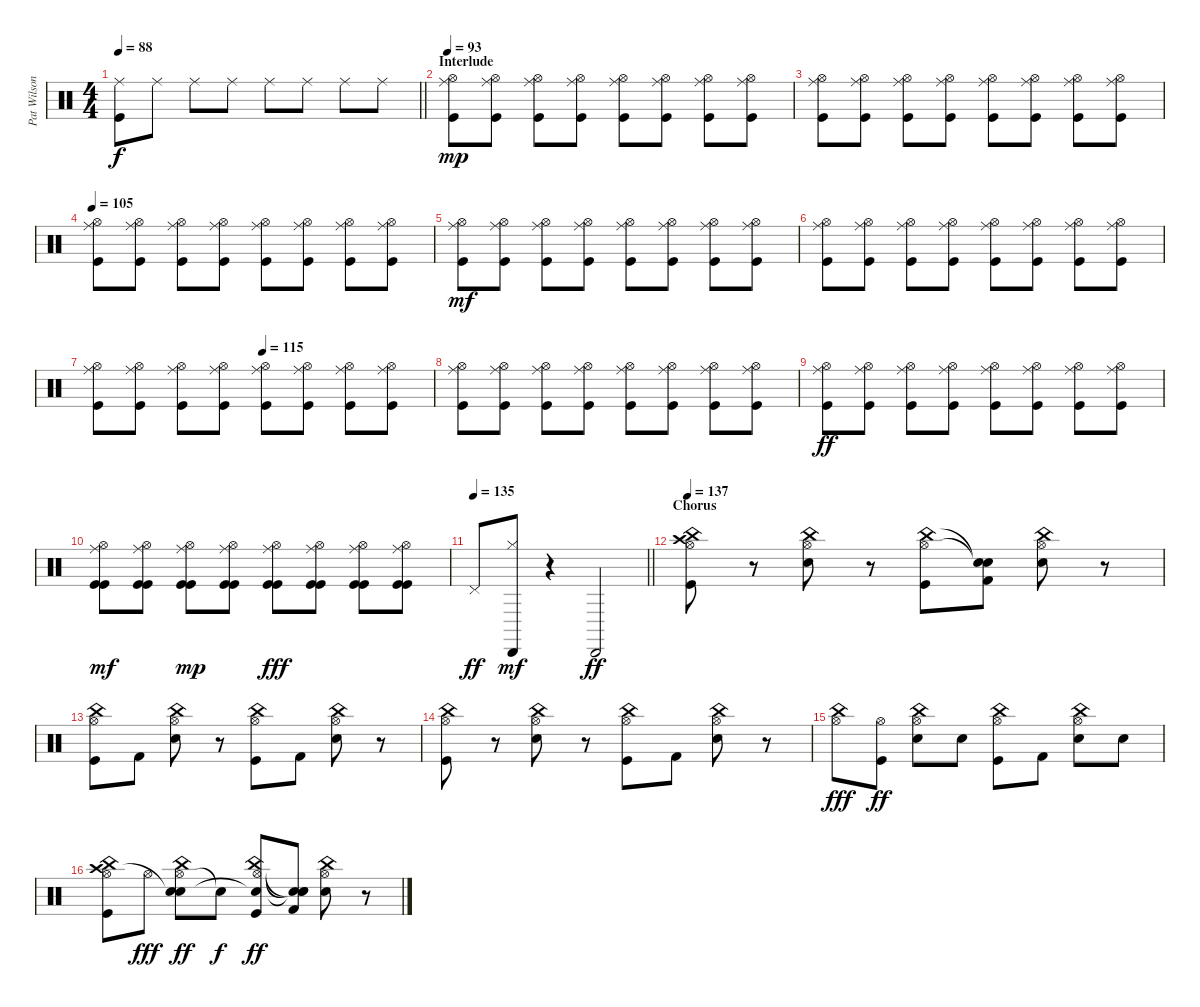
\track ("Pat Wilson" "Pat Wilson") {instrument percussion}
\staff {score}
\articulation defaults
\ts (4 4)
\tempo 88
\clef neutral
\barLineRight lightlight
\ks c
("Ride (middle)" "Kick (hit)").8{dy f} "Ride (middle)".8 "Ride (middle)".8 "Ride (middle)".8 "Ride (middle)".8 "Ride (middle)".8 "Ride (middle)".8 "Ride (middle)".8 |
\section ("" "Interlude")
\tempo 93
("Hi-Hat (open)" "Ride (middle)" "Kick (hit)").8{dy mp} ("Hi-Hat (open)" "Ride (middle)" "Kick (hit)").8 ("Hi-Hat (open)" "Ride (middle)" "Kick (hit)").8 ("Hi-Hat (open)" "Ride (middle)" "Kick (hit)").8 ("Hi-Hat (open)" "Ride (middle)" "Kick (hit)").8 ("Hi-Hat (open)" "Ride (middle)" "Kick (hit)").8 ("Hi-Hat (open)" "Ride (middle)" "Kick (hit)").8 ("Hi-Hat (open)" "Ride (middle)" "Kick (hit)").8 |
("Hi-Hat (open)" "Ride (middle)" "Kick (hit)").8 ("Hi-Hat (open)" "Ride (middle)" "Kick (hit)").8 ("Hi-Hat (open)" "Ride (middle)" "Kick (hit)").8 ("Hi-Hat (open)" "Ride (middle)" "Kick (hit)").8 ("Hi-Hat (open)" "Ride (middle)" "Kick (hit)").8 ("Hi-Hat (open)" "Ride (middle)" "Kick (hit)").8 ("Hi-Hat (open)" "Ride (middle)" "Kick (hit)").8 ("Hi-Hat (open)" "Ride (middle)" "Kick (hit)").8 |
\tempo 105
("Hi-Hat (open)" "Ride (middle)" "Kick (hit)").8 ("Hi-Hat (open)" "Ride (middle)" "Kick (hit)").8 ("Hi-Hat (open)" "Ride (middle)" "Kick (hit)").8 ("Hi-Hat (open)" "Ride (middle)" "Kick (hit)").8 ("Hi-Hat (open)" "Ride (middle)" "Kick (hit)").8 ("Hi-Hat (open)" "Ride (middle)" "Kick (hit)").8 ("Hi-Hat (open)" "Ride (middle)" "Kick (hit)").8 ("Hi-Hat (open)" "Ride (middle)" "Kick (hit)").8 |
("Hi-Hat (open)" "Ride (middle)" "Kick (hit)").8{dy mf} ("Hi-Hat (open)" "Ride (middle)" "Kick (hit)").8 ("Hi-Hat (open)" "Ride (middle)" "Kick (hit)").8 ("Hi-Hat (open)" "Ride (middle)" "Kick (hit)").8 ("Hi-Hat (open)" "Ride (middle)" "Kick (hit)").8 ("Hi-Hat (open)" "Ride (middle)" "Kick (hit)").8 ("Hi-Hat (open)" "Ride (middle)" "Kick (hit)").8 ("Hi-Hat (open)" "Ride (middle)" "Kick (hit)").8 |
("Hi-Hat (open)" "Ride (middle)" "Kick (hit)").8 ("Hi-Hat (open)" "Ride (middle)" "Kick (hit)").8 ("Hi-Hat (open)" "Ride (middle)" "Kick (hit)").8 ("Hi-Hat (open)" "Ride (middle)" "Kick (hit)").8 ("Hi-Hat (open)" "Ride (middle)" "Kick (hit)").8 ("Hi-Hat (open)" "Ride (middle)" "Kick (hit)").8 ("Hi-Hat (open)" "Ride (middle)" "Kick (hit)").8 ("Hi-Hat (open)" "Ride (middle)" "Kick (hit)").8 |
\tempo (115 0.5)
("Hi-Hat (open)" "Ride (middle)" "Kick (hit)").8 ("Hi-Hat (open)" "Ride (middle)" "Kick (hit)").8 ("Hi-Hat (open)" "Ride (middle)" "Kick (hit)").8 ("Hi-Hat (open)" "Ride (middle)" "Kick (hit)").8 ("Hi-Hat (open)" "Ride (middle)" "Kick (hit)").8 ("Hi-Hat (open)" "Ride (middle)" "Kick (hit)").8 ("Hi-Hat (open)" "Ride (middle)" "Kick (hit)").8 ("Hi-Hat (open)" "Ride (middle)" "Kick (hit)").8 |
("Hi-Hat (open)" "Ride (middle)" "Kick (hit)").8 ("Hi-Hat (open)" "Ride (middle)" "Kick (hit)").8 ("Hi-Hat (open)" "Ride (middle)" "Kick (hit)").8 ("Hi-Hat (open)" "Ride (middle)" "Kick (hit)").8 ("Hi-Hat (open)" "Ride (middle)" "Kick (hit)").8 ("Hi-Hat (open)" "Ride (middle)" "Kick (hit)").8 ("Hi-Hat (open)" "Ride (middle)" "Kick (hit)").8 ("Hi-Hat (open)" "Ride (middle)" "Kick (hit)").8 |
("Hi-Hat (open)" "Ride (middle)" "Kick (hit)").8{dy ff} ("Hi-Hat (open)" "Ride (middle)" "Kick (hit)").8 ("Hi-Hat (open)" "Ride (middle)" "Kick (hit)").8 ("Hi-Hat (open)" "Ride (middle)" "Kick (hit)").8 ("Hi-Hat (open)" "Ride (middle)" "Kick (hit)").8 ("Hi-Hat (open)" "Ride (middle)" "Kick (hit)").8 ("Hi-Hat (open)" "Ride (middle)" "Kick (hit)").8 ("Hi-Hat (open)" "Ride (middle)" "Kick (hit)").8 |
("Hi-Hat (open)" "Ride (middle)" "Kick (hit)" "Kick (hit)").8{dy mf} ("Hi-Hat (open)" "Ride (middle)" "Kick (hit)" "Kick (hit)").8 ("Hi-Hat (open)" "Ride (middle)" "Kick (hit)" "Kick (hit)").8{dy mp} ("Hi-Hat (open)" "Ride (middle)" "Kick (hit)" "Kick (hit)").8 ("Hi-Hat (open)" "Ride (middle)" "Kick (hit)" "Kick (hit)").8{dy fff} ("Hi-Hat (open)" "Ride (middle)" "Kick (hit)" "Kick (hit)").8 ("Hi-Hat (open)" "Ride (middle)" "Kick (hit)" "Kick (hit)").8 ("Hi-Hat (open)" "Ride (middle)" "Kick (hit)" "Kick (hit)").8 |
\tempo 135
\barLineRight lightlight "Pedal Hi-Hat (hit)".8{dy ff}
("Cabasa (hit)" "Hi-Hat (closed)").8{dy mf} r.4 "Cabasa (hit)".2{dy ff} |
\section ("" "Chorus")
\tempo 137
("Hi-Hat (open)" "China (hit)" "Crash high (hit)" "Kick (hit)").8 r.8 ("Hi-Hat (open)" "China (hit)" "Snare (hit) 2").8 r.8 ("Hi-Hat (open)" "China (hit)" "Kick (hit)").8 ("Snare (hit)"{t} "Snare (hit)"{t} "Kick (hit) 2").8 ("Hi-Hat (open)" "China (hit)" "Snare (hit) 2").8 r.8 |
("Hi-Hat (open)" "China (hit)" "Kick (hit)").8 "Kick (hit) 2".8 ("Hi-Hat (open)" "China (hit)" "Snare (hit) 2").8 r.8 ("Hi-Hat (open)" "China (hit)" "Kick (hit)").8 "Kick (hit) 2".8 ("Hi-Hat (open)" "China (hit)" "Snare (hit) 2").8 r.8 |
("Hi-Hat (open)" "China (hit)" "Kick (hit)").8 r.8 ("Hi-Hat (open)" "China (hit)" "Snare (hit) 2").8 r.8 ("Hi-Hat (open)" "China (hit)" "Kick (hit)").8 "Kick (hit) 2".8 ("Hi-Hat (open)" "China (hit)" "Snare (hit) 2").8 r.8 |
("Hi-Hat (open)" "China (hit)").8{dy fff} ("Hi-Hat (open)" "Kick (hit)").8{dy ff} ("Hi-Hat (open)" "China (hit)" "Snare (hit) 2").8 "Electric Snare (hit)".8 ("Hi-Hat (open)" "China (hit)" "Kick (hit)").8 "Kick (hit) 2".8 ("Hi-Hat (open)" "China (hit)" "Electric Snare (hit)").8 "Snare (hit) 2".8 |
("Hi-Hat (open)" "China (hit)" "Crash high (hit)" "Kick (hit)").8 "Hi-Hat (open)".8{dy fff} ("Hi-Hat (open)" "China (hit)" "Snare (hit)"{t} "Snare (hit) 2").8{dy ff} "Snare (hit)"{t}.8{dy f} ("Hi-Hat (open)" "China (hit)" "Snare (hit)"{t} "Kick (hit)").8{dy ff} ("Snare (hit)"{t} "Snare (hit)"{t} "Snare (hit)"{t} "Kick (hit) 2").8 ("Hi-Hat (open)" "China (hit)" "Snare (hit) 2").8 r.8
